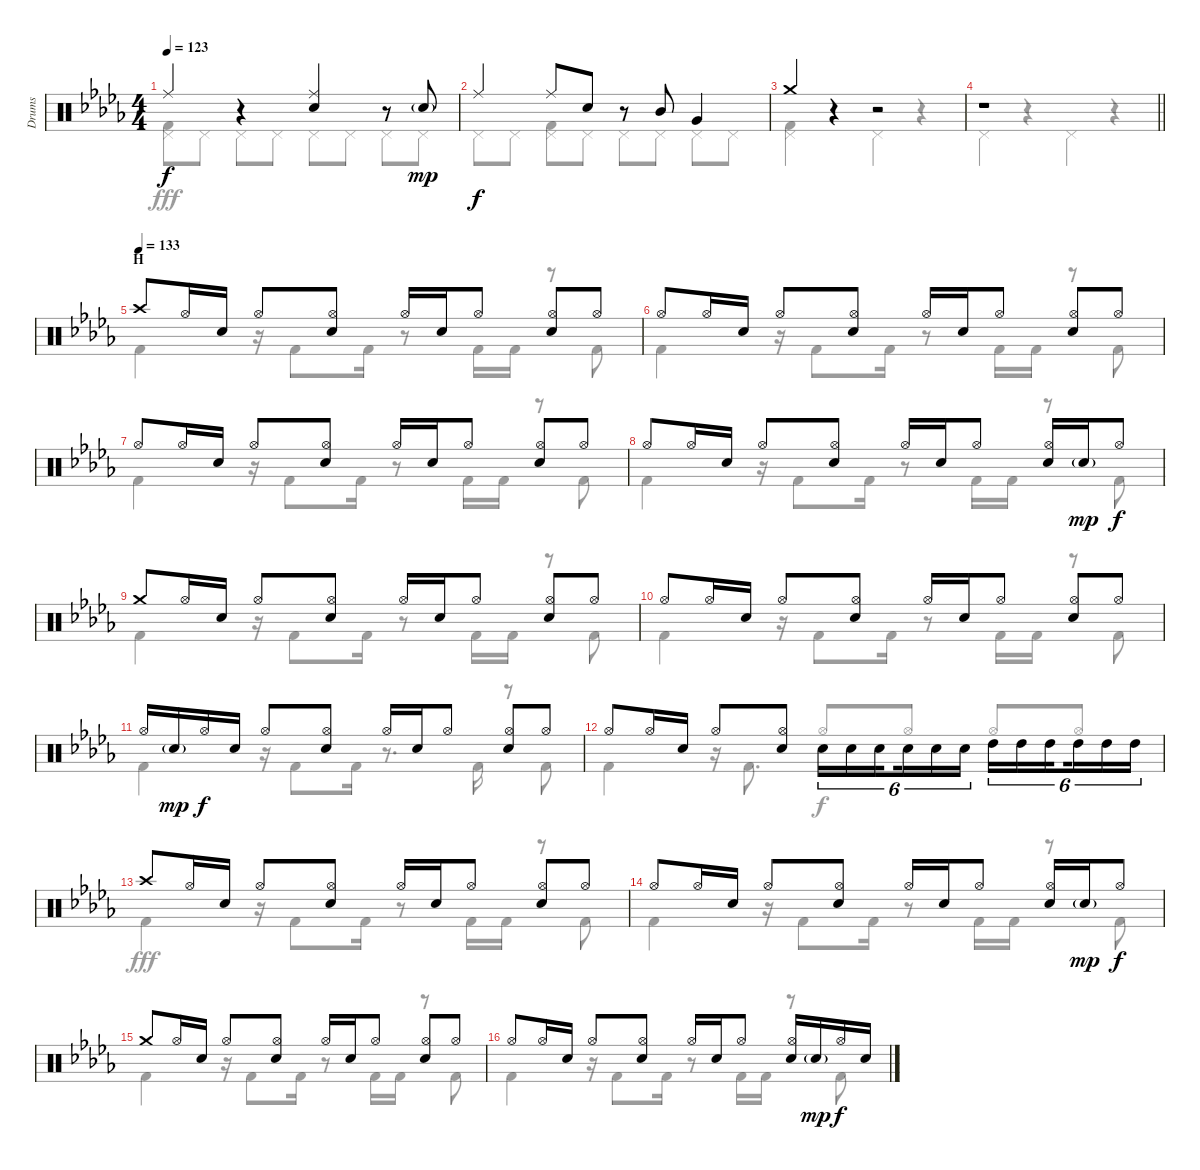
\track ("Drums" "Drums") {instrument percussion}
\staff {score}
\articulation defaults
\voice
\ts (4 4)
\tempo 123
\clef neutral
\ks db "Ride (middle)".4{dy f}
r.4 ("Ride (middle)" "Snare (hit) 2").4 r.8 "Snare (hit) 2"{g}.8{dy mp} |
"Ride (middle)".4{dy f} "Ride (middle)".8 "Snare (hit) 2".8 r.8 "Mid Tom (hit)".8 "Very Low Tom (hit)".4 |
"Crash medium (hit)".4 r.4 r.2 |
\barLineRight lightlight
r.1 |
\section ("" "H")
\tempo (133)
"Crash high (hit)".8 "Hi-Hat (open)".16 "Snare (hit) 2".16 "Hi-Hat (open)".8 ("Hi-Hat (open)" "Snare (hit) 2").8 "Hi-Hat (open)".16 "Snare (hit) 2".16 "Hi-Hat (open)".8 ("Hi-Hat (open)" "Snare (hit) 2").8 "Hi-Hat (open)".8 |
"Hi-Hat (open)".8 "Hi-Hat (open)".16 "Snare (hit) 2".16 "Hi-Hat (open)".8 ("Hi-Hat (open)" "Snare (hit) 2").8 "Hi-Hat (open)".16 "Snare (hit) 2".16 "Hi-Hat (open)".8 ("Hi-Hat (open)" "Snare (hit) 2").8 "Hi-Hat (open)".8 |
"Hi-Hat (open)".8 "Hi-Hat (open)".16 "Snare (hit) 2".16 "Hi-Hat (open)".8 ("Hi-Hat (open)" "Snare (hit) 2").8 "Hi-Hat (open)".16 "Snare (hit) 2".16 "Hi-Hat (open)".8 ("Hi-Hat (open)" "Snare (hit) 2").8 "Hi-Hat (open)".8 |
"Hi-Hat (open)".8 "Hi-Hat (open)".16 "Snare (hit) 2".16 "Hi-Hat (open)".8 ("Hi-Hat (open)" "Snare (hit) 2").8 "Hi-Hat (open)".16 "Snare (hit) 2".16 "Hi-Hat (open)".8 ("Hi-Hat (open)" "Snare (hit) 2").16 "Snare (hit) 2"{g}.16{dy mp} "Hi-Hat (open)".8{dy f} |
"Crash medium (hit)".8 "Hi-Hat (open)".16 "Snare (hit) 2".16 "Hi-Hat (open)".8 ("Hi-Hat (open)" "Snare (hit) 2").8 "Hi-Hat (open)".16 "Snare (hit) 2".16 "Hi-Hat (open)".8 ("Hi-Hat (open)" "Snare (hit) 2").8 "Hi-Hat (open)".8 |
"Hi-Hat (open)".8 "Hi-Hat (open)".16 "Snare (hit) 2".16 "Hi-Hat (open)".8 ("Hi-Hat (open)" "Snare (hit) 2").8 "Hi-Hat (open)".16 "Snare (hit) 2".16 "Hi-Hat (open)".8 ("Hi-Hat (open)" "Snare (hit) 2").8 "Hi-Hat (open)".8 |
"Hi-Hat (open)".16 "Snare (hit) 2"{g}.16{dy mp} "Hi-Hat (open)".16{dy f} "Snare (hit) 2".16 "Hi-Hat (open)".8 ("Hi-Hat (open)" "Snare (hit) 2").8 "Hi-Hat (open)".16 "Snare (hit) 2".16 "Hi-Hat (open)".8 ("Hi-Hat (open)" "Snare (hit) 2").8 "Hi-Hat (open)".8 |
"Hi-Hat (open)".8 "Hi-Hat (open)".16 "Snare (hit) 2".16 "Hi-Hat (open)".8 ("Hi-Hat (open)" "Snare (hit) 2").8 "Snare (hit) 2".16{tu (6 4) beam Down} "Snare (hit) 2".16{tu (6 4) beam Down} "Snare (hit) 2".16{tu (6 4) beam Down beam splitsecondary} "Snare (hit) 2".16{tu (6 4) beam Down} "Snare (hit) 2".16{tu (6 4) beam Down} "Snare (hit) 2".16{tu (6 4) beam Down} "High Tom (hit)".16{tu (6 4) beam Down} "High Tom (hit)".16{tu (6 4) beam Down} "High Tom (hit)".16{tu (6 4) beam Down beam splitsecondary} "High Tom (hit)".16{tu (6 4) beam Down} "High Tom (hit)".16{tu (6 4) beam Down} "High Tom (hit)".16{tu (6 4) beam Down} |
"Crash high (hit)".8 "Hi-Hat (open)".16 "Snare (hit) 2".16 "Hi-Hat (open)".8 ("Hi-Hat (open)" "Snare (hit) 2").8 "Hi-Hat (open)".16 "Snare (hit) 2".16 "Hi-Hat (open)".8 ("Hi-Hat (open)" "Snare (hit) 2").8 "Hi-Hat (open)".8 |
"Hi-Hat (open)".8 "Hi-Hat (open)".16 "Snare (hit) 2".16 "Hi-Hat (open)".8 ("Hi-Hat (open)" "Snare (hit) 2").8 "Hi-Hat (open)".16 "Snare (hit) 2".16 "Hi-Hat (open)".8 ("Hi-Hat (open)" "Snare (hit) 2").16 "Snare (hit) 2"{g}.16{dy mp} "Hi-Hat (open)".8{dy f} |
"Crash medium (hit)".8 "Hi-Hat (open)".16 "Snare (hit) 2".16 "Hi-Hat (open)".8 ("Hi-Hat (open)" "Snare (hit) 2").8 "Hi-Hat (open)".16 "Snare (hit) 2".16 "Hi-Hat (open)".8 ("Hi-Hat (open)" "Snare (hit) 2").8 "Hi-Hat (open)".8 |
"Hi-Hat (open)".8 "Hi-Hat (open)".16 "Snare (hit) 2".16 "Hi-Hat (open)".8 ("Hi-Hat (open)" "Snare (hit) 2").8 "Hi-Hat (open)".16 "Snare (hit) 2".16 "Hi-Hat (open)".8 ("Hi-Hat (open)" "Snare (hit) 2").16 "Snare (hit) 2"{g}.16{dy mp} "Hi-Hat (open)".16{dy f} "Snare (hit) 2".16
\voice
\clef neutral
\ottava regular
\simile none
\ks db
("Pedal Hi-Hat (hit)" "Kick (hit) 2").8{dy fff} "Pedal Hi-Hat (hit)".8 "Pedal Hi-Hat (hit)".8 "Pedal Hi-Hat (hit)".8 "Pedal Hi-Hat (hit)".8 "Pedal Hi-Hat (hit)".8 "Pedal Hi-Hat (hit)".8 "Pedal Hi-Hat (hit)".8 |
"Pedal Hi-Hat (hit)".8 "Pedal Hi-Hat (hit)".8 ("Pedal Hi-Hat (hit)" "Kick (hit) 2").8 "Pedal Hi-Hat (hit)".8 "Pedal Hi-Hat (hit)".8 "Pedal Hi-Hat (hit)".8 "Pedal Hi-Hat (hit)".8 "Pedal Hi-Hat (hit)".8 |
("Pedal Hi-Hat (hit)" "Kick (hit) 2").4 r.4 "Pedal Hi-Hat (hit)".4 r.4 |
\barLineRight lightlight "Pedal Hi-Hat (hit)".4
r.4 "Pedal Hi-Hat (hit)".4 r.4 |
"Kick (hit) 2".4 r.16 "Kick (hit) 2".8 "Kick (hit) 2".16 r.8 "Kick (hit) 2".16 "Kick (hit) 2".16 r.8 "Kick (hit) 2".8 |
"Kick (hit) 2".4 r.16 "Kick (hit) 2".8 "Kick (hit) 2".16 r.8 "Kick (hit) 2".16 "Kick (hit) 2".16 r.8 "Kick (hit) 2".8 |
"Kick (hit) 2".4 r.16 "Kick (hit) 2".8 "Kick (hit) 2".16 r.8 "Kick (hit) 2".16 "Kick (hit) 2".16 r.8 "Kick (hit) 2".8 |
"Kick (hit) 2".4 r.16 "Kick (hit) 2".8 "Kick (hit) 2".16 r.8 "Kick (hit) 2".16 "Kick (hit) 2".16 r.8 "Kick (hit) 2".8 |
"Kick (hit) 2".4 r.16 "Kick (hit) 2".8 "Kick (hit) 2".16 r.8 "Kick (hit) 2".16 "Kick (hit) 2".16 r.8 "Kick (hit) 2".8 |
"Kick (hit) 2".4 r.16 "Kick (hit) 2".8 "Kick (hit) 2".16 r.8 "Kick (hit) 2".16 "Kick (hit) 2".16 r.8 "Kick (hit) 2".8 |
"Kick (hit) 2".4 r.16 "Kick (hit) 2".8 "Kick (hit) 2".16 r.8{d} "Kick (hit) 2".16 r.8 "Kick (hit) 2".8 |
"Kick (hit) 2".4 r.16 "Kick (hit) 2".8{d} "Hi-Hat (open)".8{dy f beam Up} "Hi-Hat (open)".8{beam Up} "Hi-Hat (open)".8{beam Up} "Hi-Hat (open)".8{beam Up} |
"Kick (hit) 2".4{dy fff} r.16 "Kick (hit) 2".8 "Kick (hit) 2".16 r.8 "Kick (hit) 2".16 "Kick (hit) 2".16 r.8 "Kick (hit) 2".8 |
"Kick (hit) 2".4 r.16 "Kick (hit) 2".8 "Kick (hit) 2".16 r.8 "Kick (hit) 2".16 "Kick (hit) 2".16 r.8 "Kick (hit) 2".8 |
"Kick (hit) 2".4 r.16 "Kick (hit) 2".8 "Kick (hit) 2".16 r.8 "Kick (hit) 2".16 "Kick (hit) 2".16 r.8 "Kick (hit) 2".8 |
"Kick (hit) 2".4 r.16 "Kick (hit) 2".8 "Kick (hit) 2".16 r.8 "Kick (hit) 2".16 "Kick (hit) 2".16 r.8 "Kick (hit) 2".8
